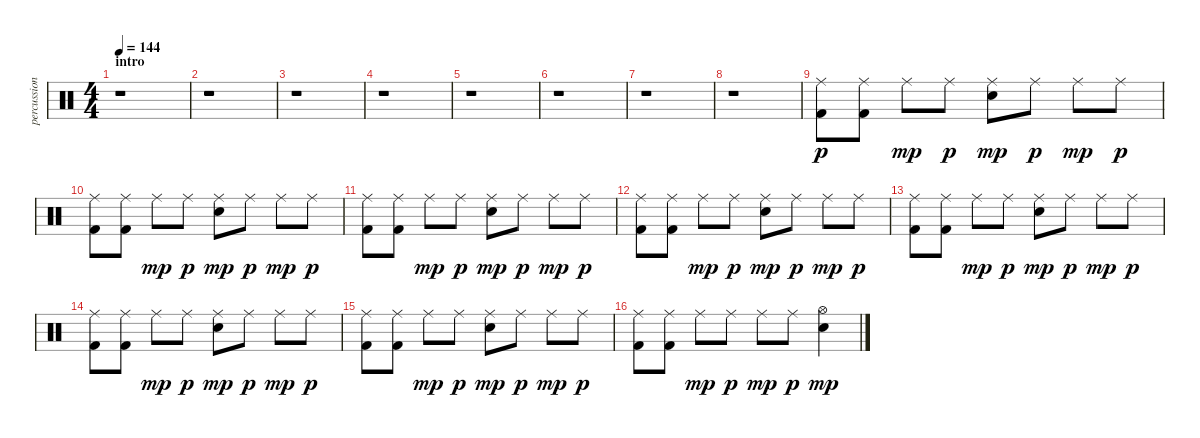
\track ("percussion" "percussion") {instrument percussion}
\staff {score}
\articulation defaults
\ts (4 4)
\section ("" "intro")
\tempo 144
\clef neutral
\ks c
r.1{dy p} |
r.1 |
r.1 |
r.1 |
r.1 |
r.1 |
r.1 |
r.1 |
("Ride (middle)" "Kick (hit) 2").8 ("Ride (middle)" "Kick (hit) 2").8 "Ride (middle)".8{dy mp} "Ride (middle)".8{dy p} ("Ride (middle)" "Electric Snare (hit)").8{dy mp} "Ride (middle)".8{dy p} "Ride (middle)".8{dy mp} "Ride (middle)".8{dy p} |
("Ride (middle)" "Kick (hit) 2").8 ("Ride (middle)" "Kick (hit) 2").8 "Ride (middle)".8{dy mp} "Ride (middle)".8{dy p} ("Ride (middle)" "Electric Snare (hit)").8{dy mp} "Ride (middle)".8{dy p} "Ride (middle)".8{dy mp} "Ride (middle)".8{dy p} |
("Ride (middle)" "Kick (hit) 2").8 ("Ride (middle)" "Kick (hit) 2").8 "Ride (middle)".8{dy mp} "Ride (middle)".8{dy p} ("Ride (middle)" "Electric Snare (hit)").8{dy mp} "Ride (middle)".8{dy p} "Ride (middle)".8{dy mp} "Ride (middle)".8{dy p} |
("Ride (middle)" "Kick (hit) 2").8 ("Ride (middle)" "Kick (hit) 2").8 "Ride (middle)".8{dy mp} "Ride (middle)".8{dy p} ("Ride (middle)" "Electric Snare (hit)").8{dy mp} "Ride (middle)".8{dy p} "Ride (middle)".8{dy mp} "Ride (middle)".8{dy p} |
("Ride (middle)" "Kick (hit) 2").8 ("Ride (middle)" "Kick (hit) 2").8 "Ride (middle)".8{dy mp} "Ride (middle)".8{dy p} ("Ride (middle)" "Electric Snare (hit)").8{dy mp} "Ride (middle)".8{dy p} "Ride (middle)".8{dy mp} "Ride (middle)".8{dy p} |
("Ride (middle)" "Kick (hit) 2").8 ("Ride (middle)" "Kick (hit) 2").8 "Ride (middle)".8{dy mp} "Ride (middle)".8{dy p} ("Ride (middle)" "Electric Snare (hit)").8{dy mp} "Ride (middle)".8{dy p} "Ride (middle)".8{dy mp} "Ride (middle)".8{dy p} |
("Ride (middle)" "Kick (hit) 2").8 ("Ride (middle)" "Kick (hit) 2").8 "Ride (middle)".8{dy mp} "Ride (middle)".8{dy p} ("Ride (middle)" "Electric Snare (hit)").8{dy mp} "Ride (middle)".8{dy p} "Ride (middle)".8{dy mp} "Ride (middle)".8{dy p} |
("Ride (middle)" "Kick (hit) 2").8 ("Ride (middle)" "Kick (hit) 2").8 "Ride (middle)".8{dy mp} "Ride (middle)".8{dy p} "Ride (middle)".8{dy mp} "Ride (middle)".8{dy p} ("Hi-Hat (open)" "Electric Snare (hit)").4{dy mp}
